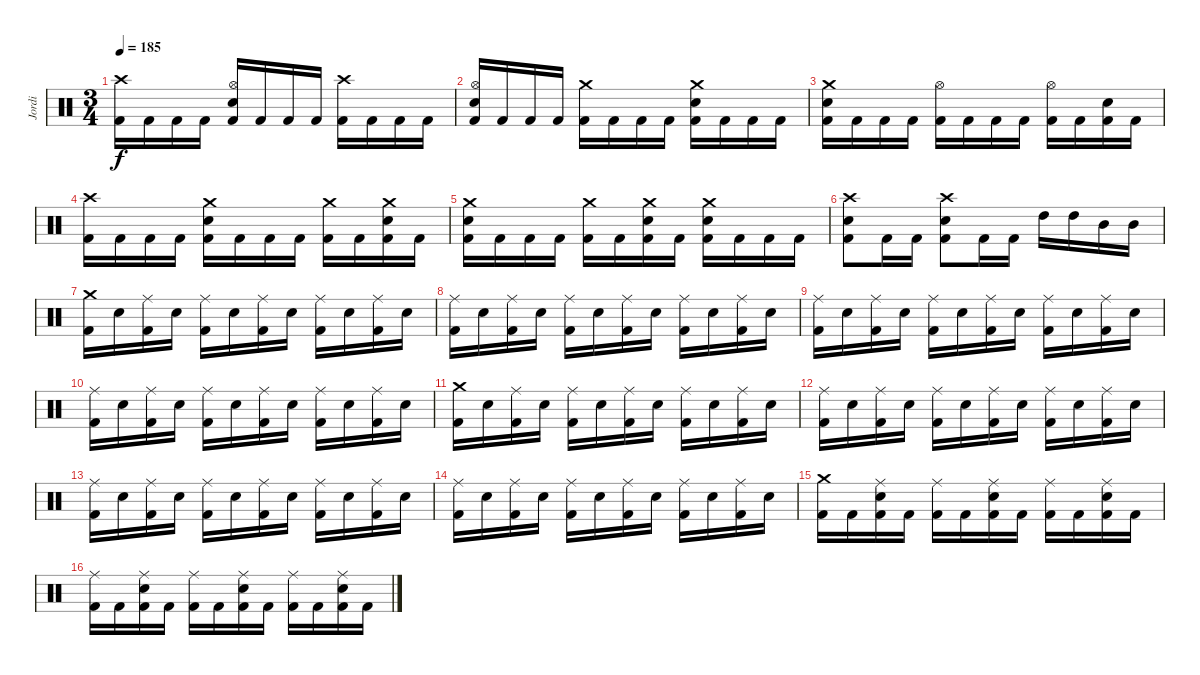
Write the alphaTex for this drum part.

\track ("Jordi" "Jordi") {instrument percussion}
\staff {score}
\articulation defaults
\ts (3 4)
\tempo 185
\clef neutral
\ks c
("Crash high (hit)" "Kick (hit) 2").16{dy f} "Kick (hit) 2".16 "Kick (hit) 2".16 "Kick (hit) 2".16 ("Hi-Hat (open)" "Snare (hit) 2" "Kick (hit) 2").16 "Kick (hit) 2".16 "Kick (hit) 2".16 "Kick (hit) 2".16 ("Crash high (hit)" "Kick (hit) 2").16 "Kick (hit) 2".16 "Kick (hit) 2".16 "Kick (hit) 2".16 |
("Hi-Hat (open)" "Snare (hit) 2" "Kick (hit) 2").16 "Kick (hit) 2".16 "Kick (hit) 2".16 "Kick (hit) 2".16 ("Crash medium (hit)" "Kick (hit) 2").16 "Kick (hit) 2".16 "Kick (hit) 2".16 "Kick (hit) 2".16 ("Crash medium (hit)" "Snare (hit) 2" "Kick (hit) 2").16 "Kick (hit) 2".16 "Kick (hit) 2".16 "Kick (hit) 2".16 |
("Crash medium (hit)" "Snare (hit) 2" "Kick (hit) 2").16 "Kick (hit) 2".16 "Kick (hit) 2".16 "Kick (hit) 2".16 ("Hi-Hat (open)" "Kick (hit) 2").16 "Kick (hit) 2".16 "Kick (hit) 2".16 "Kick (hit) 2".16 ("Hi-Hat (open)" "Kick (hit) 2").16 "Kick (hit) 2".16 ("Snare (hit) 2" "Kick (hit) 2").16 "Kick (hit) 2".16 |
("Crash high (hit)" "Kick (hit) 2").16 "Kick (hit) 2".16 "Kick (hit) 2".16 "Kick (hit) 2".16 ("Crash medium (hit)" "Snare (hit) 2" "Kick (hit) 2").16 "Kick (hit) 2".16 "Kick (hit) 2".16 "Kick (hit) 2".16 ("Crash medium (hit)" "Kick (hit) 2").16 "Kick (hit) 2".16 ("Crash medium (hit)" "Snare (hit) 2" "Kick (hit) 2").16 "Kick (hit) 2".16 |
("Crash medium (hit)" "Snare (hit) 2" "Kick (hit) 2").16 "Kick (hit) 2".16 "Kick (hit) 2".16 "Kick (hit) 2".16 ("Crash medium (hit)" "Kick (hit) 2").16 "Kick (hit) 2".16 ("Crash medium (hit)" "Snare (hit) 2" "Kick (hit) 2").16 "Kick (hit) 2".16 ("Crash medium (hit)" "Snare (hit) 2" "Kick (hit) 2").16 "Kick (hit) 2".16 "Kick (hit) 2".16 "Kick (hit) 2".16 |
("Crash high (hit)" "Snare (hit) 2" "Kick (hit) 2").8 "Kick (hit) 2".16 "Kick (hit) 2".16 ("Crash high (hit)" "Snare (hit) 2" "Kick (hit) 2").8 "Kick (hit) 2".16 "Kick (hit) 2".16 "High Tom (hit)".16 "High Tom (hit)".16 "Mid Tom (hit)".16 "Mid Tom (hit)".16 |
("Crash medium (hit)" "Kick (hit) 2").16 "Snare (hit) 2".16 ("Ride (middle)" "Kick (hit) 2").16 "Snare (hit) 2".16 ("Ride (middle)" "Kick (hit) 2").16 "Snare (hit) 2".16 ("Ride (middle)" "Kick (hit) 2").16 "Snare (hit) 2".16 ("Ride (middle)" "Kick (hit) 2").16 "Snare (hit) 2".16 ("Ride (middle)" "Kick (hit) 2").16 "Snare (hit) 2".16 |
("Ride (middle)" "Kick (hit) 2").16 "Snare (hit) 2".16 ("Ride (middle)" "Kick (hit) 2").16 "Snare (hit) 2".16 ("Ride (middle)" "Kick (hit) 2").16 "Snare (hit) 2".16 ("Ride (middle)" "Kick (hit) 2").16 "Snare (hit) 2".16 ("Ride (middle)" "Kick (hit) 2").16 "Snare (hit) 2".16 ("Ride (middle)" "Kick (hit) 2").16 "Snare (hit) 2".16 |
("Ride (middle)" "Kick (hit) 2").16 "Snare (hit) 2".16 ("Ride (middle)" "Kick (hit) 2").16 "Snare (hit) 2".16 ("Ride (middle)" "Kick (hit) 2").16 "Snare (hit) 2".16 ("Ride (middle)" "Kick (hit) 2").16 "Snare (hit) 2".16 ("Ride (middle)" "Kick (hit) 2").16 "Snare (hit) 2".16 ("Ride (middle)" "Kick (hit) 2").16 "Snare (hit) 2".16 |
("Ride (middle)" "Kick (hit) 2").16 "Snare (hit) 2".16 ("Ride (middle)" "Kick (hit) 2").16 "Snare (hit) 2".16 ("Ride (middle)" "Kick (hit) 2").16 "Snare (hit) 2".16 ("Ride (middle)" "Kick (hit) 2").16 "Snare (hit) 2".16 ("Ride (middle)" "Kick (hit) 2").16 "Snare (hit) 2".16 ("Ride (middle)" "Kick (hit) 2").16 "Snare (hit) 2".16 |
("Crash medium (hit)" "Kick (hit) 2").16 "Snare (hit) 2".16 ("Ride (middle)" "Kick (hit) 2").16 "Snare (hit) 2".16 ("Ride (middle)" "Kick (hit) 2").16 "Snare (hit) 2".16 ("Ride (middle)" "Kick (hit) 2").16 "Snare (hit) 2".16 ("Ride (middle)" "Kick (hit) 2").16 "Snare (hit) 2".16 ("Ride (middle)" "Kick (hit) 2").16 "Snare (hit) 2".16 |
("Ride (middle)" "Kick (hit) 2").16 "Snare (hit) 2".16 ("Ride (middle)" "Kick (hit) 2").16 "Snare (hit) 2".16 ("Ride (middle)" "Kick (hit) 2").16 "Snare (hit) 2".16 ("Ride (middle)" "Kick (hit) 2").16 "Snare (hit) 2".16 ("Ride (middle)" "Kick (hit) 2").16 "Snare (hit) 2".16 ("Ride (middle)" "Kick (hit) 2").16 "Snare (hit) 2".16 |
("Ride (middle)" "Kick (hit) 2").16 "Snare (hit) 2".16 ("Ride (middle)" "Kick (hit) 2").16 "Snare (hit) 2".16 ("Ride (middle)" "Kick (hit) 2").16 "Snare (hit) 2".16 ("Ride (middle)" "Kick (hit) 2").16 "Snare (hit) 2".16 ("Ride (middle)" "Kick (hit) 2").16 "Snare (hit) 2".16 ("Ride (middle)" "Kick (hit) 2").16 "Snare (hit) 2".16 |
("Ride (middle)" "Kick (hit) 2").16 "Snare (hit) 2".16 ("Ride (middle)" "Kick (hit) 2").16 "Snare (hit) 2".16 ("Ride (middle)" "Kick (hit) 2").16 "Snare (hit) 2".16 ("Ride (middle)" "Kick (hit) 2").16 "Snare (hit) 2".16 ("Ride (middle)" "Kick (hit) 2").16 "Snare (hit) 2".16 ("Ride (middle)" "Kick (hit) 2").16 "Snare (hit) 2".16 |
("Crash medium (hit)" "Kick (hit) 2").16 "Kick (hit) 2".16 ("Ride (middle)" "Snare (hit) 2" "Kick (hit) 2").16 "Kick (hit) 2".16 ("Ride (middle)" "Kick (hit) 2").16 "Kick (hit) 2".16 ("Ride (middle)" "Snare (hit) 2" "Kick (hit) 2").16 "Kick (hit) 2".16 ("Ride (middle)" "Kick (hit) 2").16 "Kick (hit) 2".16 ("Ride (middle)" "Snare (hit) 2" "Kick (hit) 2").16 "Kick (hit) 2".16 |
("Ride (middle)" "Kick (hit) 2").16 "Kick (hit) 2".16 ("Ride (middle)" "Snare (hit) 2" "Kick (hit) 2").16 "Kick (hit) 2".16 ("Ride (middle)" "Kick (hit) 2").16 "Kick (hit) 2".16 ("Ride (middle)" "Snare (hit) 2" "Kick (hit) 2").16 "Kick (hit) 2".16 ("Ride (middle)" "Kick (hit) 2").16 "Kick (hit) 2".16 ("Ride (middle)" "Snare (hit) 2" "Kick (hit) 2").16 "Kick (hit) 2".16
